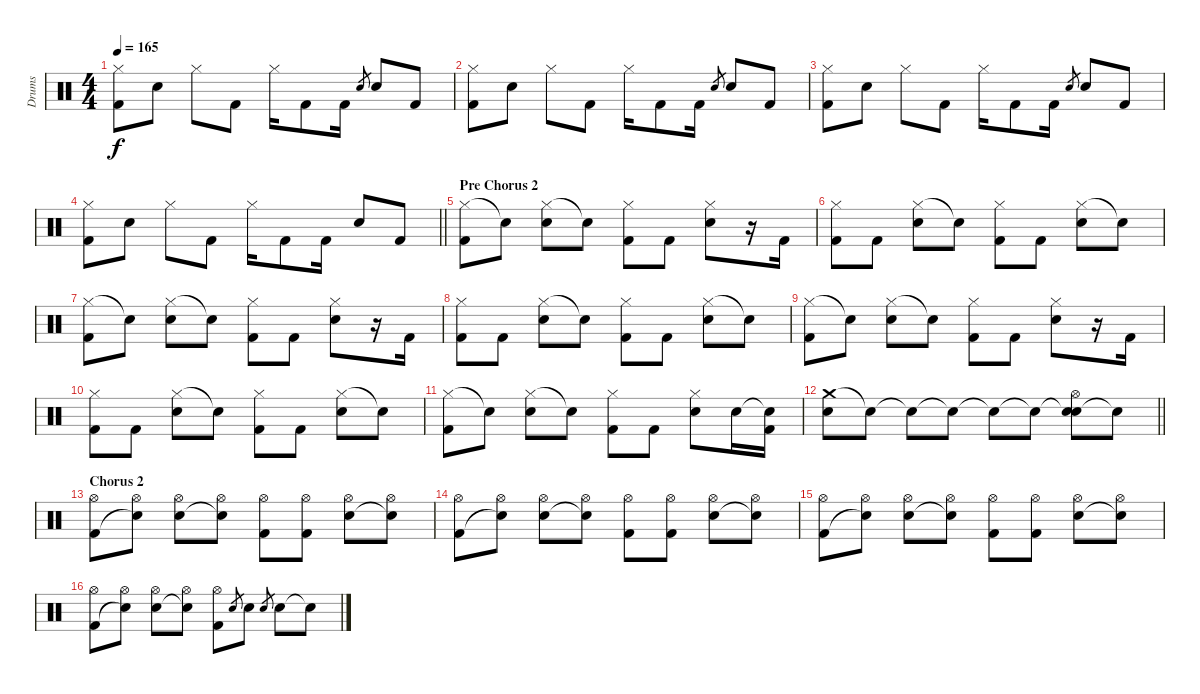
\track ("Drums" "Drums") {instrument percussion}
\staff {score}
\articulation defaults
\ts (4 4)
\tempo 165
\clef neutral
\ks c
("Hi-Hat (closed)" "Kick (hit) 2").8{dy f} "Electric Snare (hit)".8 "Hi-Hat (closed)".8 "Kick (hit) 2".8 "Hi-Hat (closed)".16 "Kick (hit) 2".8 "Kick (hit) 2".16 "Electric Snare (hit)".8{gr} "Electric Snare (hit)".8 "Kick (hit) 2".8 |
("Hi-Hat (closed)" "Kick (hit) 2").8 "Electric Snare (hit)".8 "Hi-Hat (closed)".8 "Kick (hit) 2".8 "Hi-Hat (closed)".16 "Kick (hit) 2".8 "Kick (hit) 2".16 "Electric Snare (hit)".8{gr} "Electric Snare (hit)".8 "Kick (hit) 2".8 |
("Hi-Hat (closed)" "Kick (hit) 2").8 "Electric Snare (hit)".8 "Hi-Hat (closed)".8 "Kick (hit) 2".8 "Hi-Hat (closed)".16 "Kick (hit) 2".8 "Kick (hit) 2".16 "Electric Snare (hit)".8{gr} "Electric Snare (hit)".8 "Kick (hit) 2".8 |
\barLineRight lightlight
("Hi-Hat (closed)" "Kick (hit) 2").8 "Electric Snare (hit)".8 "Hi-Hat (closed)".8 "Kick (hit) 2".8 "Hi-Hat (closed)".16 "Kick (hit) 2".8 "Kick (hit) 2".16 "Electric Snare (hit)".8 "Kick (hit) 2".8 |
\section ("" "Pre Chorus 2")
("Hi-Hat (closed)" "Kick (hit) 2").8 "Snare (hit)"{t}.8 ("Hi-Hat (closed)" "Electric Snare (hit)").8 "Snare (hit)"{t}.8 ("Hi-Hat (closed)" "Kick (hit) 2").8 "Kick (hit) 2".8 ("Hi-Hat (closed)" "Electric Snare (hit)").8 r.16 "Kick (hit) 2".16 |
("Hi-Hat (closed)" "Kick (hit) 2").8 "Kick (hit) 2".8 ("Hi-Hat (closed)" "Electric Snare (hit)").8 "Snare (hit)"{t}.8 ("Hi-Hat (closed)" "Kick (hit) 2").8 "Kick (hit) 2".8 ("Hi-Hat (closed)" "Electric Snare (hit)").8 "Snare (hit)"{t}.8 |
("Hi-Hat (closed)" "Kick (hit) 2").8 "Snare (hit)"{t}.8 ("Hi-Hat (closed)" "Electric Snare (hit)").8 "Snare (hit)"{t}.8 ("Hi-Hat (closed)" "Kick (hit) 2").8 "Kick (hit) 2".8 ("Hi-Hat (closed)" "Electric Snare (hit)").8 r.16 "Kick (hit) 2".16 |
("Hi-Hat (closed)" "Kick (hit) 2").8 "Kick (hit) 2".8 ("Hi-Hat (closed)" "Electric Snare (hit)").8 "Snare (hit)"{t}.8 ("Hi-Hat (closed)" "Kick (hit) 2").8 "Kick (hit) 2".8 ("Hi-Hat (closed)" "Electric Snare (hit)").8 "Snare (hit)"{t}.8 |
("Hi-Hat (closed)" "Kick (hit) 2").8 "Snare (hit)"{t}.8 ("Hi-Hat (closed)" "Electric Snare (hit)").8 "Snare (hit)"{t}.8 ("Hi-Hat (closed)" "Kick (hit) 2").8 "Kick (hit) 2".8 ("Hi-Hat (closed)" "Electric Snare (hit)").8 r.16 "Kick (hit) 2".16 |
("Hi-Hat (closed)" "Kick (hit) 2").8 "Kick (hit) 2".8 ("Hi-Hat (closed)" "Electric Snare (hit)").8 "Snare (hit)"{t}.8 ("Hi-Hat (closed)" "Kick (hit) 2").8 "Kick (hit) 2".8 ("Hi-Hat (closed)" "Electric Snare (hit)").8 "Snare (hit)"{t}.8 |
("Hi-Hat (closed)" "Kick (hit) 2").8 "Snare (hit)"{t}.8 ("Hi-Hat (closed)" "Electric Snare (hit)").8 "Snare (hit)"{t}.8 ("Hi-Hat (closed)" "Kick (hit) 2").8 "Kick (hit) 2".8 ("Hi-Hat (closed)" "Electric Snare (hit)").8 "Electric Snare (hit)".16 ("Electric Snare (hit)"{t} "Kick (hit) 2").16 |
\barLineRight lightlight
("Crash medium (hit)" "Electric Snare (hit)").8 "Snare (hit)"{t}.8 "Snare (hit)"{t}.8 "Snare (hit)"{t}.8 "Snare (hit)"{t}.8 "Snare (hit)"{t}.8 ("Snare (hit)"{t} "Hi-Hat (open)" "Electric Snare (hit)").8 "Snare (hit)"{t}.8 |
\section ("" "Chorus 2")
("Hi-Hat (open)" "Kick (hit) 2").8 ("Hi-Hat (open)" "Snare (hit)"{t}).8 ("Hi-Hat (open)" "Electric Snare (hit)").8 ("Hi-Hat (open)" "Snare (hit)"{t}).8 ("Hi-Hat (open)" "Kick (hit) 2").8 ("Hi-Hat (open)" "Kick (hit) 2").8 ("Hi-Hat (open)" "Electric Snare (hit)").8 ("Hi-Hat (open)" "Snare (hit)"{t}).8 |
("Hi-Hat (open)" "Kick (hit) 2").8 ("Hi-Hat (open)" "Snare (hit)"{t}).8 ("Hi-Hat (open)" "Electric Snare (hit)").8 ("Hi-Hat (open)" "Snare (hit)"{t}).8 ("Hi-Hat (open)" "Kick (hit) 2").8 ("Hi-Hat (open)" "Kick (hit) 2").8 ("Hi-Hat (open)" "Electric Snare (hit)").8 ("Hi-Hat (open)" "Snare (hit)"{t}).8 |
("Hi-Hat (open)" "Kick (hit) 2").8 ("Hi-Hat (open)" "Snare (hit)"{t}).8 ("Hi-Hat (open)" "Electric Snare (hit)").8 ("Hi-Hat (open)" "Snare (hit)"{t}).8 ("Hi-Hat (open)" "Kick (hit) 2").8 ("Hi-Hat (open)" "Kick (hit) 2").8 ("Hi-Hat (open)" "Electric Snare (hit)").8 ("Hi-Hat (open)" "Snare (hit)"{t}).8 |
("Hi-Hat (open)" "Kick (hit) 2").8 ("Hi-Hat (open)" "Snare (hit)"{t}).8 ("Hi-Hat (open)" "Electric Snare (hit)").8 ("Hi-Hat (open)" "Snare (hit)"{t}).8 ("Hi-Hat (open)" "Kick (hit) 2").8 "Electric Snare (hit)".8{gr} "Electric Snare (hit)".8 "Electric Snare (hit)".8{gr} "Electric Snare (hit)".8 "Snare (hit)"{t}.8
